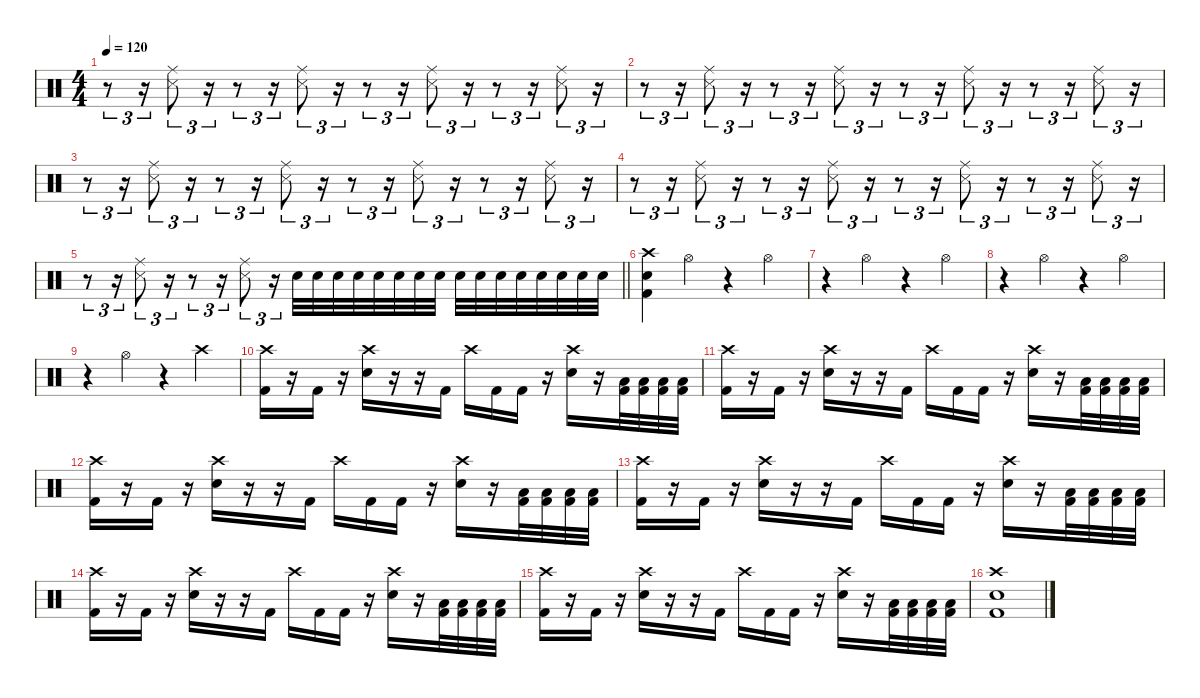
\defaultSystemsLayout 4
\hideDynamics
\bracketExtendMode nobrackets
\singleTrackTrackNamePolicy hidden
\multiTrackTrackNamePolicy hidden
\firstSystemTrackNameMode fullname
\firstSystemTrackNameOrientation horizontal
\otherSystemsTrackNameOrientation horizontal
\track ("DRUMS" "drm.") {defaultSystemsLayout 4 instrument percussion}
\staff {score}
\articulation defaults
\ts (4 4)
\tempo 120
\clef neutral
\ks c
r.8{tu (3 2) dy f beam Down} r.16{tu (3 2) beam Down} ("Ride (middle)" "Snare (side stick) 3").8{tu (3 2) beam Down} r.16{tu (3 2) beam Down} r.8{tu (3 2) beam Down} r.16{tu (3 2) beam Down} ("Ride (middle)" "Snare (side stick) 3").8{tu (3 2) beam Down} r.16{tu (3 2) beam Down} r.8{tu (3 2) beam Down} r.16{tu (3 2) beam Down} ("Ride (middle)" "Snare (side stick) 3").8{tu (3 2) beam Down} r.16{tu (3 2) beam Down} r.8{tu (3 2) beam Down} r.16{tu (3 2) beam Down} ("Ride (middle)" "Snare (side stick) 3").8{tu (3 2) beam Down} r.16{tu (3 2) beam Down} |
r.8{tu (3 2) beam Down} r.16{tu (3 2) beam Down} ("Ride (middle)" "Snare (side stick) 3").8{tu (3 2) beam Down} r.16{tu (3 2) beam Down} r.8{tu (3 2) beam Down} r.16{tu (3 2) beam Down} ("Ride (middle)" "Snare (side stick) 3").8{tu (3 2) beam Down} r.16{tu (3 2) beam Down} r.8{tu (3 2) beam Down} r.16{tu (3 2) beam Down} ("Ride (middle)" "Snare (side stick) 3").8{tu (3 2) beam Down} r.16{tu (3 2) beam Down} r.8{tu (3 2) beam Down} r.16{tu (3 2) beam Down} ("Ride (middle)" "Snare (side stick) 3").8{tu (3 2) beam Down} r.16{tu (3 2) beam Down} |
r.8{tu (3 2) beam Down} r.16{tu (3 2) beam Down} ("Ride (middle)" "Snare (side stick) 3").8{tu (3 2) beam Down} r.16{tu (3 2) beam Down} r.8{tu (3 2) beam Down} r.16{tu (3 2) beam Down} ("Ride (middle)" "Snare (side stick) 3").8{tu (3 2) beam Down} r.16{tu (3 2) beam Down} r.8{tu (3 2) beam Down} r.16{tu (3 2) beam Down} ("Ride (middle)" "Snare (side stick) 3").8{tu (3 2) beam Down} r.16{tu (3 2) beam Down} r.8{tu (3 2) beam Down} r.16{tu (3 2) beam Down} ("Ride (middle)" "Snare (side stick) 3").8{tu (3 2) beam Down} r.16{tu (3 2) beam Down} |
r.8{tu (3 2) beam Down} r.16{tu (3 2) beam Down} ("Ride (middle)" "Snare (side stick) 3").8{tu (3 2) beam Down} r.16{tu (3 2) beam Down} r.8{tu (3 2) beam Down} r.16{tu (3 2) beam Down} ("Ride (middle)" "Snare (side stick) 3").8{tu (3 2) beam Down} r.16{tu (3 2) beam Down} r.8{tu (3 2) beam Down} r.16{tu (3 2) beam Down} ("Ride (middle)" "Snare (side stick) 3").8{tu (3 2) beam Down} r.16{tu (3 2) beam Down} r.8{tu (3 2) beam Down} r.16{tu (3 2) beam Down} ("Ride (middle)" "Snare (side stick) 3").8{tu (3 2) beam Down} r.16{tu (3 2) beam Down} |
\barLineRight lightlight
r.8{tu (3 2) beam Down} r.16{tu (3 2) beam Down} ("Ride (middle)" "Snare (side stick) 3").8{tu (3 2) beam Down} r.16{tu (3 2) beam Down} r.8{tu (3 2) beam Down} r.16{tu (3 2) beam Down} ("Ride (middle)" "Snare (side stick) 3").8{tu (3 2) beam Down} r.16{tu (3 2) beam Down} "Snare (hit) 2".32{beam Down} "Snare (hit) 2".32{beam Down} "Snare (hit) 2".32{beam Down} "Snare (hit) 2".32{beam Down} "Snare (hit) 2".32{beam Down} "Snare (hit) 2".32{beam Down} "Snare (hit) 2".32{beam Down} "Snare (hit) 2".32{beam Down} "Snare (hit) 2".32{beam Down} "Snare (hit) 2".32{beam Down} "Snare (hit) 2".32{beam Down} "Snare (hit) 2".32{beam Down} "Snare (hit) 2".32{beam Down} "Snare (hit) 2".32{beam Down} "Snare (hit) 2".32{beam Down} "Snare (hit) 2".32{beam Down} |
("Kick (hit) 2" "Crash high (hit)" "Snare (hit) 2").4{beam Down} "Hi-Hat (open)".4{beam Down} r.4{beam Down} "Hi-Hat (open)".4{beam Down} |
r.4{beam Down} "Hi-Hat (open)".4{beam Down} r.4{beam Down} "Hi-Hat (open)".4{beam Down} |
r.4{beam Down} "Hi-Hat (open)".4{beam Down} r.4{beam Down} "Hi-Hat (open)".4{beam Down} |
r.4{beam Down} "Hi-Hat (open)".4{beam Down} r.4{beam Down} "Crash high (hit)".4{beam Down} |
("Crash high (hit)" "Kick (hit) 2").16{beam Down} r.16{beam Down} "Kick (hit) 2".16{beam Down} r.16{beam Down} ("Crash high (hit)" "Snare (hit) 2").16{beam Down} r.16{beam Down} r.16{beam Down} "Kick (hit) 2".16{beam Down} "Crash high (hit)".16{beam Down} "Kick (hit) 2".16{beam Down} "Kick (hit) 2".16{beam Down} r.16{beam Down} ("Crash high (hit)" "Snare (hit) 2").16{beam Down} r.16{beam Down} ("Low Tom (hit)" "Kick (hit) 2").32{beam Down} ("Low Tom (hit)" "Kick (hit) 2").32{beam Down} ("Low Tom (hit)" "Kick (hit) 2").32{beam Down} ("Low Tom (hit)" "Kick (hit) 2").32{beam Down} |
("Crash high (hit)" "Kick (hit) 2").16{beam Down} r.16{beam Down} "Kick (hit) 2".16{beam Down} r.16{beam Down} ("Crash high (hit)" "Snare (hit) 2").16{beam Down} r.16{beam Down} r.16{beam Down} "Kick (hit) 2".16{beam Down} "Crash high (hit)".16{beam Down} "Kick (hit) 2".16{beam Down} "Kick (hit) 2".16{beam Down} r.16{beam Down} ("Crash high (hit)" "Snare (hit) 2").16{beam Down} r.16{beam Down} ("Low Tom (hit)" "Kick (hit) 2").32{beam Down} ("Low Tom (hit)" "Kick (hit) 2").32{beam Down} ("Low Tom (hit)" "Kick (hit) 2").32{beam Down} ("Low Tom (hit)" "Kick (hit) 2").32{beam Down} |
("Crash high (hit)" "Kick (hit) 2").16{beam Down} r.16{beam Down} "Kick (hit) 2".16{beam Down} r.16{beam Down} ("Crash high (hit)" "Snare (hit) 2").16{beam Down} r.16{beam Down} r.16{beam Down} "Kick (hit) 2".16{beam Down} "Crash high (hit)".16{beam Down} "Kick (hit) 2".16{beam Down} "Kick (hit) 2".16{beam Down} r.16{beam Down} ("Crash high (hit)" "Snare (hit) 2").16{beam Down} r.16{beam Down} ("Low Tom (hit)" "Kick (hit) 2").32{beam Down} ("Low Tom (hit)" "Kick (hit) 2").32{beam Down} ("Low Tom (hit)" "Kick (hit) 2").32{beam Down} ("Low Tom (hit)" "Kick (hit) 2").32{beam Down} |
("Crash high (hit)" "Kick (hit) 2").16{beam Down} r.16{beam Down} "Kick (hit) 2".16{beam Down} r.16{beam Down} ("Crash high (hit)" "Snare (hit) 2").16{beam Down} r.16{beam Down} r.16{beam Down} "Kick (hit) 2".16{beam Down} "Crash high (hit)".16{beam Down} "Kick (hit) 2".16{beam Down} "Kick (hit) 2".16{beam Down} r.16{beam Down} ("Crash high (hit)" "Snare (hit) 2").16{beam Down} r.16{beam Down} ("Low Tom (hit)" "Kick (hit) 2").32{beam Down} ("Low Tom (hit)" "Kick (hit) 2").32{beam Down} ("Low Tom (hit)" "Kick (hit) 2").32{beam Down} ("Low Tom (hit)" "Kick (hit) 2").32{beam Down} |
("Crash high (hit)" "Kick (hit) 2").16{beam Down} r.16{beam Down} "Kick (hit) 2".16{beam Down} r.16{beam Down} ("Crash high (hit)" "Snare (hit) 2").16{beam Down} r.16{beam Down} r.16{beam Down} "Kick (hit) 2".16{beam Down} "Crash high (hit)".16{beam Down} "Kick (hit) 2".16{beam Down} "Kick (hit) 2".16{beam Down} r.16{beam Down} ("Crash high (hit)" "Snare (hit) 2").16{beam Down} r.16{beam Down} ("Low Tom (hit)" "Kick (hit) 2").32{beam Down} ("Low Tom (hit)" "Kick (hit) 2").32{beam Down} ("Low Tom (hit)" "Kick (hit) 2").32{beam Down} ("Low Tom (hit)" "Kick (hit) 2").32{beam Down} |
("Crash high (hit)" "Kick (hit) 2").16{beam Down} r.16{beam Down} "Kick (hit) 2".16{beam Down} r.16{beam Down} ("Crash high (hit)" "Snare (hit) 2").16{beam Down} r.16{beam Down} r.16{beam Down} "Kick (hit) 2".16{beam Down} "Crash high (hit)".16{beam Down} "Kick (hit) 2".16{beam Down} "Kick (hit) 2".16{beam Down} r.16{beam Down} ("Crash high (hit)" "Snare (hit) 2").16{beam Down} r.16{beam Down} ("Low Tom (hit)" "Kick (hit) 2").32{beam Down} ("Low Tom (hit)" "Kick (hit) 2").32{beam Down} ("Low Tom (hit)" "Kick (hit) 2").32{beam Down} ("Low Tom (hit)" "Kick (hit) 2").32{beam Down} |
("Snare (hit) 2" "Kick (hit) 2" "Crash high (hit)").1{beam Down}
